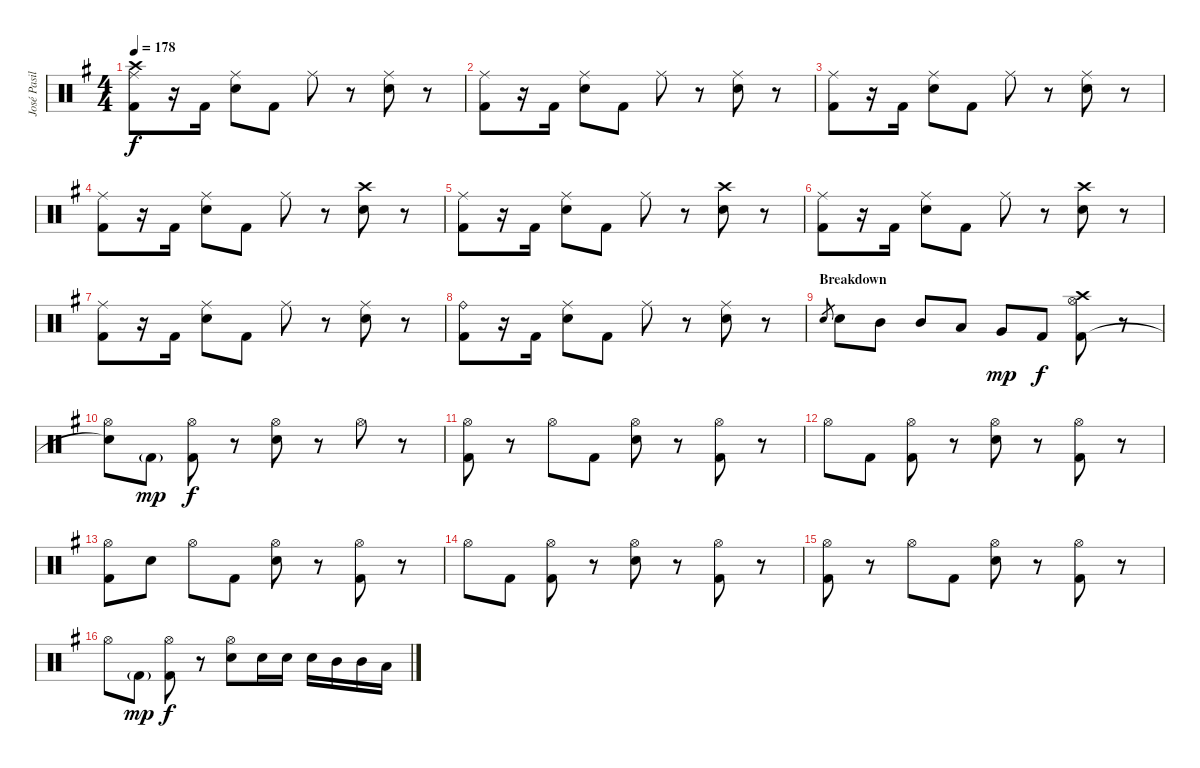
\track ("José Pasillas [Drums]" "José Pasil") {instrument percussion}
\staff {score}
\articulation defaults
\ts (4 4)
\tempo 178
\clef neutral
\ks g
("Kick (hit) 2" "Crash high (hit)" "Ride (middle)").8{dy f} r.16 "Kick (hit) 2".16 ("Electric Snare (hit)" "Ride (middle)").8 "Kick (hit) 2".8 "Ride (middle)".8 r.8 ("Electric Snare (hit)" "Ride (middle)").8 r.8 |
("Kick (hit) 2" "Ride (middle)").8 r.16 "Kick (hit) 2".16 ("Electric Snare (hit)" "Ride (middle)").8 "Kick (hit) 2".8 "Ride (middle)".8 r.8 ("Electric Snare (hit)" "Ride (middle)").8 r.8 |
("Kick (hit) 2" "Ride (middle)").8 r.16 "Kick (hit) 2".16 ("Electric Snare (hit)" "Ride (middle)").8 "Kick (hit) 2".8 "Ride (middle)".8 r.8 ("Electric Snare (hit)" "Ride (middle)").8 r.8 |
("Kick (hit) 2" "Ride (middle)").8 r.16 "Kick (hit) 2".16 ("Electric Snare (hit)" "Ride (middle)").8 "Kick (hit) 2".8 "Ride (middle)".8 r.8 ("Electric Snare (hit)" "Crash high (hit)").8 r.8 |
("Kick (hit) 2" "Ride (middle)").8 r.16 "Kick (hit) 2".16 ("Electric Snare (hit)" "Ride (middle)").8 "Kick (hit) 2".8 "Ride (middle)".8 r.8 ("Electric Snare (hit)" "Crash high (hit)").8 r.8 |
("Kick (hit) 2" "Ride (middle)").8 r.16 "Kick (hit) 2".16 ("Electric Snare (hit)" "Ride (middle)").8 "Kick (hit) 2".8 "Ride (middle)".8 r.8 ("Electric Snare (hit)" "Crash high (hit)").8 r.8 |
("Kick (hit) 2" "Ride (middle)").8 r.16 "Kick (hit) 2".16 ("Electric Snare (hit)" "Ride (middle)").8 "Kick (hit) 2".8 "Ride (middle)".8 r.8 ("Electric Snare (hit)" "Ride (middle)").8 r.8 |
("Kick (hit) 2" "Ride (bell)").8 r.16 "Kick (hit) 2".16 ("Electric Snare (hit)" "Ride (middle)").8 "Kick (hit) 2".8 "Ride (middle)".8 r.8 ("Electric Snare (hit)" "Ride (middle)").8 r.8 |
\section ("" "Breakdown")
"Electric Snare (hit)".8{gr} "Electric Snare (hit)".8 "Mid Tom (hit)".8 "Mid Tom (hit)".8 "Low Tom (hit)".8 "Very Low Tom (hit)".8{dy mp} "Kick (hit) 2".8{dy f} ("Kick (hit) 2" "Crash high (hit)" "Hi-Hat (open)").8 r.8 |
("Snare (hit)"{t} "Hi-Hat (open)").8 "Kick (hit) 2"{g}.8{dy mp} ("Kick (hit) 2" "Hi-Hat (open)").8{dy f} r.8 ("Electric Snare (hit)" "Hi-Hat (open)").8 r.8 "Hi-Hat (open)".8 r.8 |
("Kick (hit) 2" "Hi-Hat (open)").8 r.8 "Hi-Hat (open)".8 "Kick (hit) 2".8 ("Electric Snare (hit)" "Hi-Hat (open)").8 r.8 ("Kick (hit) 2" "Hi-Hat (open)").8 r.8 |
"Hi-Hat (open)".8 "Kick (hit) 2".8 ("Kick (hit) 2" "Hi-Hat (open)").8 r.8 ("Electric Snare (hit)" "Hi-Hat (open)").8 r.8 ("Kick (hit) 2" "Hi-Hat (open)").8 r.8 |
("Kick (hit) 2" "Hi-Hat (open)").8 "Electric Snare (hit)".8 "Hi-Hat (open)".8 "Kick (hit) 2".8 ("Electric Snare (hit)" "Hi-Hat (open)").8 r.8 ("Kick (hit) 2" "Hi-Hat (open)").8 r.8 |
"Hi-Hat (open)".8 "Kick (hit) 2".8 ("Kick (hit) 2" "Hi-Hat (open)").8 r.8 ("Electric Snare (hit)" "Hi-Hat (open)").8 r.8 ("Kick (hit) 2" "Hi-Hat (open)").8 r.8 |
("Kick (hit) 2" "Hi-Hat (open)").8 r.8 "Hi-Hat (open)".8 "Kick (hit) 2".8 ("Electric Snare (hit)" "Hi-Hat (open)").8 r.8 ("Kick (hit) 2" "Hi-Hat (open)").8 r.8 |
"Hi-Hat (open)".8 "Kick (hit) 2"{g}.8{dy mp} ("Kick (hit) 2" "Hi-Hat (open)").8{dy f} r.8 ("Electric Snare (hit)" "Hi-Hat (open)").8 "Electric Snare (hit)".16 "Electric Snare (hit)".16 "Electric Snare (hit)".16 "Mid Tom (hit)".16 "Mid Tom (hit)".16 "Low Tom (hit)".16
